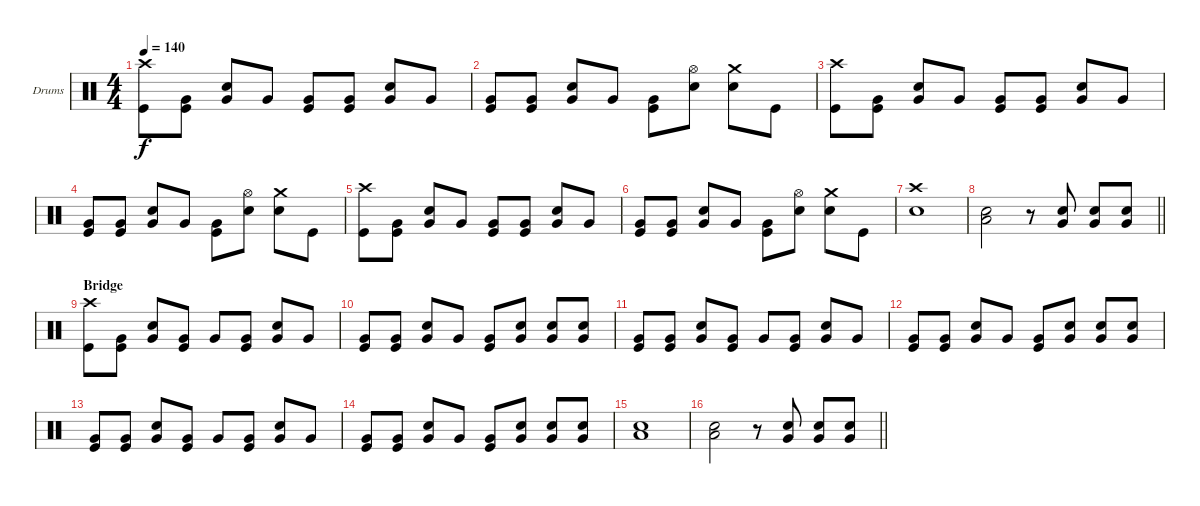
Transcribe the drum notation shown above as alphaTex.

\bracketExtendMode groupsimilarinstruments
\firstSystemTrackNameOrientation horizontal
\otherSystemsTrackNameOrientation horizontal
\track ("Drumkit" "Drums") {instrument percussion}
\staff {score}
\articulation defaults
\ts (4 4)
\tempo 140
\clef neutral
\ks c
("Crash high (hit)" "Kick (hit)").8{dy f} ("Very Low Tom (hit)" "Kick (hit)").8 ("Very Low Tom (hit)" "Snare (hit) 2").8 "Very Low Tom (hit)".8 ("Very Low Tom (hit)" "Kick (hit)").8 ("Very Low Tom (hit)" "Kick (hit)").8 ("Very Low Tom (hit)" "Snare (hit) 2").8 "Very Low Tom (hit)".8 |
("Very Low Tom (hit)" "Kick (hit)").8 ("Very Low Tom (hit)" "Kick (hit)").8 ("Very Low Tom (hit)" "Snare (hit) 2").8 "Very Low Tom (hit)".8 ("Very Low Tom (hit)" "Kick (hit)").8 ("Hi-Hat (open)" "Snare (hit) 2").8 ("Crash medium (hit)" "Snare (hit) 2").8 "Kick (hit)".8 |
("Crash high (hit)" "Kick (hit)").8 ("Very Low Tom (hit)" "Kick (hit)").8 ("Very Low Tom (hit)" "Snare (hit) 2").8 "Very Low Tom (hit)".8 ("Very Low Tom (hit)" "Kick (hit)").8 ("Very Low Tom (hit)" "Kick (hit)").8 ("Very Low Tom (hit)" "Snare (hit) 2").8 "Very Low Tom (hit)".8 |
("Very Low Tom (hit)" "Kick (hit)").8 ("Very Low Tom (hit)" "Kick (hit)").8 ("Very Low Tom (hit)" "Snare (hit) 2").8 "Very Low Tom (hit)".8 ("Very Low Tom (hit)" "Kick (hit)").8 ("Hi-Hat (open)" "Snare (hit) 2").8 ("Crash medium (hit)" "Snare (hit) 2").8 "Kick (hit)".8 |
("Crash high (hit)" "Kick (hit)").8 ("Very Low Tom (hit)" "Kick (hit)").8 ("Very Low Tom (hit)" "Snare (hit) 2").8 "Very Low Tom (hit)".8 ("Very Low Tom (hit)" "Kick (hit)").8 ("Very Low Tom (hit)" "Kick (hit)").8 ("Very Low Tom (hit)" "Snare (hit) 2").8 "Very Low Tom (hit)".8 |
("Very Low Tom (hit)" "Kick (hit)").8 ("Very Low Tom (hit)" "Kick (hit)").8 ("Very Low Tom (hit)" "Snare (hit) 2").8 "Very Low Tom (hit)".8 ("Very Low Tom (hit)" "Kick (hit)").8 ("Hi-Hat (open)" "Snare (hit) 2").8 ("Crash medium (hit)" "Snare (hit) 2").8 "Kick (hit)".8 |
("Crash high (hit)" "Snare (hit) 2").1 |
\barLineRight lightlight
("Snare (hit) 2" "Low Tom (hit)").2 r.8 ("Snare (hit) 2" "Very Low Tom (hit)").8 ("Snare (hit) 2" "Very Low Tom (hit)").8 ("Snare (hit) 2" "Very Low Tom (hit)").8 |
\section ("" "Bridge")
("Crash high (hit)" "Kick (hit)").8 ("Very Low Tom (hit)" "Kick (hit)").8 ("Very Low Tom (hit)" "Snare (hit) 2").8 ("Very Low Tom (hit)" "Kick (hit)").8 "Very Low Tom (hit)".8 ("Very Low Tom (hit)" "Kick (hit)").8 ("Very Low Tom (hit)" "Snare (hit) 2").8 "Very Low Tom (hit)".8 |
("Very Low Tom (hit)" "Kick (hit)").8 ("Very Low Tom (hit)" "Kick (hit)").8 ("Very Low Tom (hit)" "Snare (hit) 2").8 "Very Low Tom (hit)".8 ("Very Low Tom (hit)" "Kick (hit)").8 ("Very Low Tom (hit)" "Snare (hit) 2").8 ("Very Low Tom (hit)" "Snare (hit) 2").8 ("Very Low Tom (hit)" "Snare (hit) 2").8 |
("Very Low Tom (hit)" "Kick (hit)").8 ("Very Low Tom (hit)" "Kick (hit)").8 ("Very Low Tom (hit)" "Snare (hit) 2").8 ("Very Low Tom (hit)" "Kick (hit)").8 "Very Low Tom (hit)".8 ("Very Low Tom (hit)" "Kick (hit)").8 ("Very Low Tom (hit)" "Snare (hit) 2").8 "Very Low Tom (hit)".8 |
("Very Low Tom (hit)" "Kick (hit)").8 ("Very Low Tom (hit)" "Kick (hit)").8 ("Very Low Tom (hit)" "Snare (hit) 2").8 "Very Low Tom (hit)".8 ("Very Low Tom (hit)" "Kick (hit)").8 ("Very Low Tom (hit)" "Snare (hit) 2").8 ("Very Low Tom (hit)" "Snare (hit) 2").8 ("Very Low Tom (hit)" "Snare (hit) 2").8 |
("Very Low Tom (hit)" "Kick (hit)").8 ("Very Low Tom (hit)" "Kick (hit)").8 ("Very Low Tom (hit)" "Snare (hit) 2").8 ("Very Low Tom (hit)" "Kick (hit)").8 "Very Low Tom (hit)".8 ("Very Low Tom (hit)" "Kick (hit)").8 ("Very Low Tom (hit)" "Snare (hit) 2").8 "Very Low Tom (hit)".8 |
("Very Low Tom (hit)" "Kick (hit)").8 ("Very Low Tom (hit)" "Kick (hit)").8 ("Very Low Tom (hit)" "Snare (hit) 2").8 "Very Low Tom (hit)".8 ("Very Low Tom (hit)" "Kick (hit)").8 ("Very Low Tom (hit)" "Snare (hit) 2").8 ("Very Low Tom (hit)" "Snare (hit) 2").8 ("Very Low Tom (hit)" "Snare (hit) 2").8 |
("Snare (hit) 2" "Low Tom (hit)").1 |
\barLineRight lightlight
("Snare (hit) 2" "Low Tom (hit)").2 r.8 ("Snare (hit) 2" "Very Low Tom (hit)").8 ("Snare (hit) 2" "Very Low Tom (hit)").8 ("Snare (hit) 2" "Very Low Tom (hit)").8
